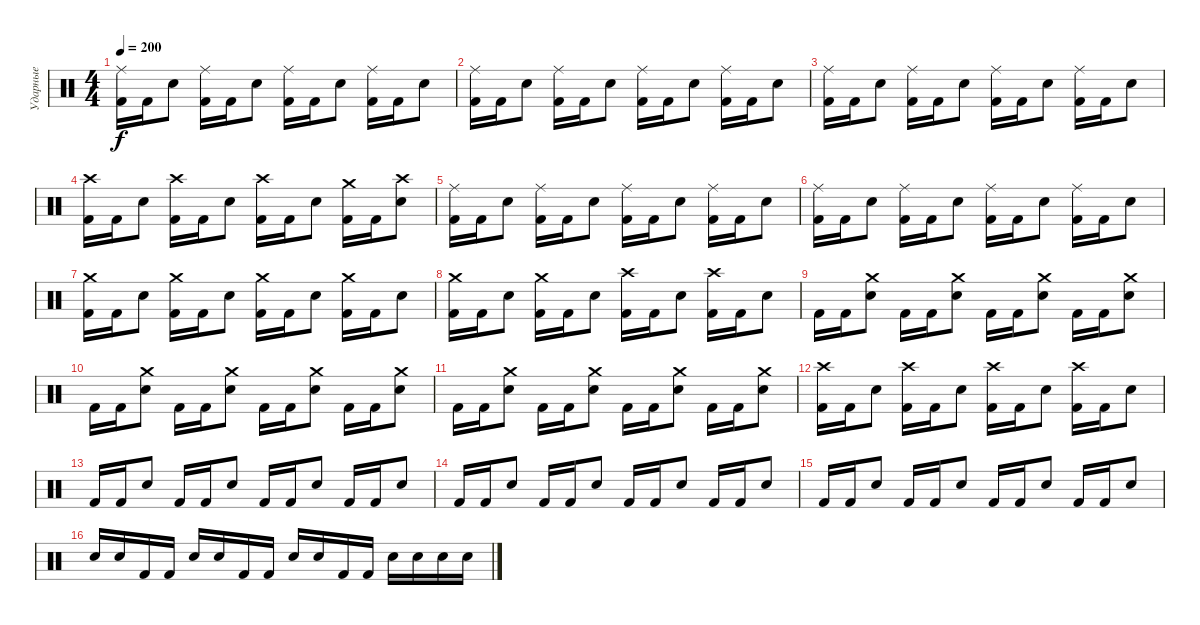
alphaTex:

\track ("Ударные" "Ударные") {instrument percussion}
\staff {score}
\articulation defaults
\ts (4 4)
\tempo 200
\clef neutral
\ks c
("Kick (hit) 2" "Ride (middle)").16{dy f} "Kick (hit) 2".16 "Electric Snare (hit)".8 ("Kick (hit) 2" "Ride (middle)").16 "Kick (hit) 2".16 "Electric Snare (hit)".8 ("Kick (hit) 2" "Ride (middle)").16 "Kick (hit) 2".16 "Electric Snare (hit)".8 ("Kick (hit) 2" "Ride (middle)").16 "Kick (hit) 2".16 "Electric Snare (hit)".8 |
("Kick (hit) 2" "Ride (middle)").16 "Kick (hit) 2".16 "Electric Snare (hit)".8 ("Kick (hit) 2" "Ride (middle)").16 "Kick (hit) 2".16 "Electric Snare (hit)".8 ("Kick (hit) 2" "Ride (middle)").16 "Kick (hit) 2".16 "Electric Snare (hit)".8 ("Kick (hit) 2" "Ride (middle)").16 "Kick (hit) 2".16 "Electric Snare (hit)".8 |
("Kick (hit) 2" "Ride (middle)").16 "Kick (hit) 2".16 "Electric Snare (hit)".8 ("Kick (hit) 2" "Ride (middle)").16 "Kick (hit) 2".16 "Electric Snare (hit)".8 ("Kick (hit) 2" "Ride (middle)").16 "Kick (hit) 2".16 "Electric Snare (hit)".8 ("Kick (hit) 2" "Ride (middle)").16 "Kick (hit) 2".16 "Electric Snare (hit)".8 |
("Kick (hit) 2" "Crash high (hit)").16 "Kick (hit) 2".16 "Electric Snare (hit)".8 ("Kick (hit) 2" "Crash high (hit)").16 "Kick (hit) 2".16 "Electric Snare (hit)".8 ("Kick (hit) 2" "Crash high (hit)").16 "Kick (hit) 2".16 "Electric Snare (hit)".8 ("Kick (hit) 2" "Crash medium (hit)").16 "Kick (hit) 2".16 ("Electric Snare (hit)" "Crash high (hit)").8 |
("Kick (hit) 2" "Ride (middle)").16 "Kick (hit) 2".16 "Electric Snare (hit)".8 ("Kick (hit) 2" "Ride (middle)").16 "Kick (hit) 2".16 "Electric Snare (hit)".8 ("Kick (hit) 2" "Ride (middle)").16 "Kick (hit) 2".16 "Electric Snare (hit)".8 ("Kick (hit) 2" "Ride (middle)").16 "Kick (hit) 2".16 "Electric Snare (hit)".8 |
("Kick (hit) 2" "Ride (middle)").16 "Kick (hit) 2".16 "Electric Snare (hit)".8 ("Kick (hit) 2" "Ride (middle)").16 "Kick (hit) 2".16 "Electric Snare (hit)".8 ("Kick (hit) 2" "Ride (middle)").16 "Kick (hit) 2".16 "Electric Snare (hit)".8 ("Kick (hit) 2" "Ride (middle)").16 "Kick (hit) 2".16 "Electric Snare (hit)".8 |
("Kick (hit) 2" "Crash medium (hit)").16 "Kick (hit) 2".16 "Electric Snare (hit)".8 ("Kick (hit) 2" "Crash medium (hit)").16 "Kick (hit) 2".16 "Electric Snare (hit)".8 ("Kick (hit) 2" "Crash medium (hit)").16 "Kick (hit) 2".16 "Electric Snare (hit)".8 ("Kick (hit) 2" "Crash medium (hit)").16 "Kick (hit) 2".16 "Electric Snare (hit)".8 |
("Kick (hit) 2" "Crash medium (hit)").16 "Kick (hit) 2".16 "Electric Snare (hit)".8 ("Kick (hit) 2" "Crash medium (hit)").16 "Kick (hit) 2".16 "Electric Snare (hit)".8 ("Kick (hit) 2" "Crash high (hit)").16 "Kick (hit) 2".16 "Electric Snare (hit)".8 ("Kick (hit) 2" "Crash high (hit)").16 "Kick (hit) 2".16 "Electric Snare (hit)".8 |
"Kick (hit) 2".16 "Kick (hit) 2".16 ("Electric Snare (hit)" "Crash medium (hit)").8 "Kick (hit) 2".16 "Kick (hit) 2".16 ("Electric Snare (hit)" "Crash medium (hit)").8 "Kick (hit) 2".16 "Kick (hit) 2".16 ("Electric Snare (hit)" "Crash medium (hit)").8 "Kick (hit) 2".16 "Kick (hit) 2".16 ("Electric Snare (hit)" "Crash medium (hit)").8 |
"Kick (hit) 2".16 "Kick (hit) 2".16 ("Electric Snare (hit)" "Crash medium (hit)").8 "Kick (hit) 2".16 "Kick (hit) 2".16 ("Electric Snare (hit)" "Crash medium (hit)").8 "Kick (hit) 2".16 "Kick (hit) 2".16 ("Electric Snare (hit)" "Crash medium (hit)").8 "Kick (hit) 2".16 "Kick (hit) 2".16 ("Electric Snare (hit)" "Crash medium (hit)").8 |
"Kick (hit) 2".16 "Kick (hit) 2".16 ("Electric Snare (hit)" "Crash medium (hit)").8 "Kick (hit) 2".16 "Kick (hit) 2".16 ("Electric Snare (hit)" "Crash medium (hit)").8 "Kick (hit) 2".16 "Kick (hit) 2".16 ("Electric Snare (hit)" "Crash medium (hit)").8 "Kick (hit) 2".16 "Kick (hit) 2".16 ("Electric Snare (hit)" "Crash medium (hit)").8 |
("Kick (hit) 2" "Crash high (hit)").16 "Kick (hit) 2".16 "Electric Snare (hit)".8 ("Kick (hit) 2" "Crash high (hit)").16 "Kick (hit) 2".16 "Electric Snare (hit)".8 ("Kick (hit) 2" "Crash high (hit)").16 "Kick (hit) 2".16 "Electric Snare (hit)".8 ("Kick (hit) 2" "Crash high (hit)").16 "Kick (hit) 2".16 "Electric Snare (hit)".8 |
"Kick (hit) 2".16 "Kick (hit) 2".16 "Electric Snare (hit)".8 "Kick (hit) 2".16 "Kick (hit) 2".16 "Electric Snare (hit)".8 "Kick (hit) 2".16 "Kick (hit) 2".16 "Electric Snare (hit)".8 "Kick (hit) 2".16 "Kick (hit) 2".16 "Electric Snare (hit)".8 |
"Kick (hit) 2".16 "Kick (hit) 2".16 "Electric Snare (hit)".8 "Kick (hit) 2".16 "Kick (hit) 2".16 "Electric Snare (hit)".8 "Kick (hit) 2".16 "Kick (hit) 2".16 "Electric Snare (hit)".8 "Kick (hit) 2".16 "Kick (hit) 2".16 "Electric Snare (hit)".8 |
"Kick (hit) 2".16 "Kick (hit) 2".16 "Electric Snare (hit)".8 "Kick (hit) 2".16 "Kick (hit) 2".16 "Electric Snare (hit)".8 "Kick (hit) 2".16 "Kick (hit) 2".16 "Electric Snare (hit)".8 "Kick (hit) 2".16 "Kick (hit) 2".16 "Electric Snare (hit)".8 |
"Electric Snare (hit)".16 "Electric Snare (hit)".16 "Kick (hit) 2".16 "Kick (hit) 2".16 "Electric Snare (hit)".16 "Electric Snare (hit)".16 "Kick (hit) 2".16 "Kick (hit) 2".16 "Electric Snare (hit)".16 "Electric Snare (hit)".16 "Kick (hit) 2".16 "Kick (hit) 2".16 "Electric Snare (hit)".16 "Electric Snare (hit)".16 "Electric Snare (hit)".16 "Electric Snare (hit)".16
